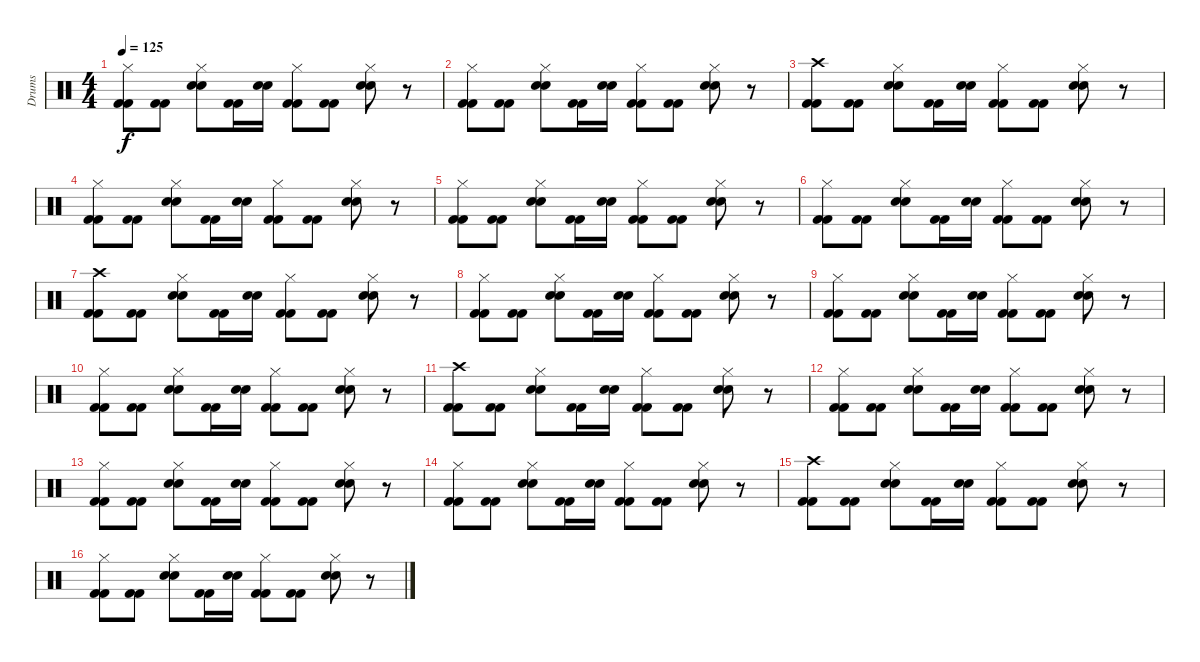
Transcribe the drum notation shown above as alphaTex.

\track ("Drums" "Drums") {instrument percussion}
\staff {score}
\articulation defaults
\ts (4 4)
\tempo 125
\clef neutral
\ks c
("Hi-Hat (closed)" "Kick (hit) 2" "Kick (hit) 2").8{dy f} ("Kick (hit) 2" "Kick (hit) 2").8 ("Hi-Hat (closed)" "Hand Clap (hit)" "Snare (hit) 2").8 ("Kick (hit) 2" "Kick (hit) 2").16 ("Hand Clap (hit)" "Snare (hit) 2").16 ("Hi-Hat (closed)" "Kick (hit) 2" "Kick (hit) 2").8 ("Kick (hit) 2" "Kick (hit) 2").8 ("Hi-Hat (closed)" "Hand Clap (hit)" "Snare (hit) 2").8 r.8 |
("Hi-Hat (closed)" "Kick (hit) 2" "Kick (hit) 2").8 ("Kick (hit) 2" "Kick (hit) 2").8 ("Hi-Hat (closed)" "Hand Clap (hit)" "Snare (hit) 2").8 ("Kick (hit) 2" "Kick (hit) 2").16 ("Hand Clap (hit)" "Snare (hit) 2").16 ("Hi-Hat (closed)" "Kick (hit) 2" "Kick (hit) 2").8 ("Kick (hit) 2" "Kick (hit) 2").8 ("Hi-Hat (closed)" "Hand Clap (hit)" "Snare (hit) 2").8 r.8 |
("Crash high (hit)" "Kick (hit) 2" "Kick (hit) 2").8{volume 11} ("Kick (hit) 2" "Kick (hit) 2").8 ("Hi-Hat (closed)" "Hand Clap (hit)" "Snare (hit) 2").8 ("Kick (hit) 2" "Kick (hit) 2").16 ("Hand Clap (hit)" "Snare (hit) 2").16 ("Hi-Hat (closed)" "Kick (hit) 2" "Kick (hit) 2").8 ("Kick (hit) 2" "Kick (hit) 2").8 ("Hi-Hat (closed)" "Hand Clap (hit)" "Snare (hit) 2").8 r.8 |
("Hi-Hat (closed)" "Kick (hit) 2" "Kick (hit) 2").8 ("Kick (hit) 2" "Kick (hit) 2").8 ("Hi-Hat (closed)" "Hand Clap (hit)" "Snare (hit) 2").8 ("Kick (hit) 2" "Kick (hit) 2").16 ("Hand Clap (hit)" "Snare (hit) 2").16 ("Hi-Hat (closed)" "Kick (hit) 2" "Kick (hit) 2").8 ("Kick (hit) 2" "Kick (hit) 2").8 ("Hi-Hat (closed)" "Hand Clap (hit)" "Snare (hit) 2").8 r.8 |
("Hi-Hat (closed)" "Kick (hit) 2" "Kick (hit) 2").8 ("Kick (hit) 2" "Kick (hit) 2").8 ("Hi-Hat (closed)" "Hand Clap (hit)" "Snare (hit) 2").8 ("Kick (hit) 2" "Kick (hit) 2").16 ("Hand Clap (hit)" "Snare (hit) 2").16 ("Hi-Hat (closed)" "Kick (hit) 2" "Kick (hit) 2").8 ("Kick (hit) 2" "Kick (hit) 2").8 ("Hi-Hat (closed)" "Hand Clap (hit)" "Snare (hit) 2").8 r.8 |
("Hi-Hat (closed)" "Kick (hit) 2" "Kick (hit) 2").8 ("Kick (hit) 2" "Kick (hit) 2").8 ("Hi-Hat (closed)" "Hand Clap (hit)" "Snare (hit) 2").8 ("Kick (hit) 2" "Kick (hit) 2").16 ("Hand Clap (hit)" "Snare (hit) 2").16 ("Hi-Hat (closed)" "Kick (hit) 2" "Kick (hit) 2").8 ("Kick (hit) 2" "Kick (hit) 2").8 ("Hi-Hat (closed)" "Hand Clap (hit)" "Snare (hit) 2").8 r.8 |
("Crash high (hit)" "Kick (hit) 2" "Kick (hit) 2").8 ("Kick (hit) 2" "Kick (hit) 2").8 ("Hi-Hat (closed)" "Hand Clap (hit)" "Snare (hit) 2").8 ("Kick (hit) 2" "Kick (hit) 2").16 ("Hand Clap (hit)" "Snare (hit) 2").16 ("Hi-Hat (closed)" "Kick (hit) 2" "Kick (hit) 2").8 ("Kick (hit) 2" "Kick (hit) 2").8 ("Hi-Hat (closed)" "Hand Clap (hit)" "Snare (hit) 2").8 r.8 |
("Hi-Hat (closed)" "Kick (hit) 2" "Kick (hit) 2").8 ("Kick (hit) 2" "Kick (hit) 2").8 ("Hi-Hat (closed)" "Hand Clap (hit)" "Snare (hit) 2").8 ("Kick (hit) 2" "Kick (hit) 2").16 ("Hand Clap (hit)" "Snare (hit) 2").16 ("Hi-Hat (closed)" "Kick (hit) 2" "Kick (hit) 2").8 ("Kick (hit) 2" "Kick (hit) 2").8 ("Hi-Hat (closed)" "Hand Clap (hit)" "Snare (hit) 2").8 r.8 |
("Hi-Hat (closed)" "Kick (hit) 2" "Kick (hit) 2").8 ("Kick (hit) 2" "Kick (hit) 2").8 ("Hi-Hat (closed)" "Hand Clap (hit)" "Snare (hit) 2").8 ("Kick (hit) 2" "Kick (hit) 2").16 ("Hand Clap (hit)" "Snare (hit) 2").16 ("Hi-Hat (closed)" "Kick (hit) 2" "Kick (hit) 2").8 ("Kick (hit) 2" "Kick (hit) 2").8 ("Hi-Hat (closed)" "Hand Clap (hit)" "Snare (hit) 2").8 r.8 |
("Hi-Hat (closed)" "Kick (hit) 2" "Kick (hit) 2").8 ("Kick (hit) 2" "Kick (hit) 2").8 ("Hi-Hat (closed)" "Hand Clap (hit)" "Snare (hit) 2").8 ("Kick (hit) 2" "Kick (hit) 2").16 ("Hand Clap (hit)" "Snare (hit) 2").16 ("Hi-Hat (closed)" "Kick (hit) 2" "Kick (hit) 2").8 ("Kick (hit) 2" "Kick (hit) 2").8 ("Hi-Hat (closed)" "Hand Clap (hit)" "Snare (hit) 2").8 r.8 |
("Crash high (hit)" "Kick (hit) 2" "Kick (hit) 2").8{volume 11} ("Kick (hit) 2" "Kick (hit) 2").8 ("Hi-Hat (closed)" "Hand Clap (hit)" "Snare (hit) 2").8 ("Kick (hit) 2" "Kick (hit) 2").16 ("Hand Clap (hit)" "Snare (hit) 2").16 ("Hi-Hat (closed)" "Kick (hit) 2" "Kick (hit) 2").8 ("Kick (hit) 2" "Kick (hit) 2").8 ("Hi-Hat (closed)" "Hand Clap (hit)" "Snare (hit) 2").8 r.8 |
("Hi-Hat (closed)" "Kick (hit) 2" "Kick (hit) 2").8 ("Kick (hit) 2" "Kick (hit) 2").8 ("Hi-Hat (closed)" "Hand Clap (hit)" "Snare (hit) 2").8 ("Kick (hit) 2" "Kick (hit) 2").16 ("Hand Clap (hit)" "Snare (hit) 2").16 ("Hi-Hat (closed)" "Kick (hit) 2" "Kick (hit) 2").8 ("Kick (hit) 2" "Kick (hit) 2").8 ("Hi-Hat (closed)" "Hand Clap (hit)" "Snare (hit) 2").8 r.8 |
("Hi-Hat (closed)" "Kick (hit) 2" "Kick (hit) 2").8 ("Kick (hit) 2" "Kick (hit) 2").8 ("Hi-Hat (closed)" "Hand Clap (hit)" "Snare (hit) 2").8 ("Kick (hit) 2" "Kick (hit) 2").16 ("Hand Clap (hit)" "Snare (hit) 2").16 ("Hi-Hat (closed)" "Kick (hit) 2" "Kick (hit) 2").8 ("Kick (hit) 2" "Kick (hit) 2").8 ("Hi-Hat (closed)" "Hand Clap (hit)" "Snare (hit) 2").8 r.8 |
("Hi-Hat (closed)" "Kick (hit) 2" "Kick (hit) 2").8 ("Kick (hit) 2" "Kick (hit) 2").8 ("Hi-Hat (closed)" "Hand Clap (hit)" "Snare (hit) 2").8 ("Kick (hit) 2" "Kick (hit) 2").16 ("Hand Clap (hit)" "Snare (hit) 2").16 ("Hi-Hat (closed)" "Kick (hit) 2" "Kick (hit) 2").8 ("Kick (hit) 2" "Kick (hit) 2").8 ("Hi-Hat (closed)" "Hand Clap (hit)" "Snare (hit) 2").8 r.8 |
("Crash high (hit)" "Kick (hit) 2" "Kick (hit) 2").8 ("Kick (hit) 2" "Kick (hit) 2").8 ("Hi-Hat (closed)" "Hand Clap (hit)" "Snare (hit) 2").8 ("Kick (hit) 2" "Kick (hit) 2").16 ("Hand Clap (hit)" "Snare (hit) 2").16 ("Hi-Hat (closed)" "Kick (hit) 2" "Kick (hit) 2").8 ("Kick (hit) 2" "Kick (hit) 2").8 ("Hi-Hat (closed)" "Hand Clap (hit)" "Snare (hit) 2").8 r.8 |
("Hi-Hat (closed)" "Kick (hit) 2" "Kick (hit) 2").8 ("Kick (hit) 2" "Kick (hit) 2").8 ("Hi-Hat (closed)" "Hand Clap (hit)" "Snare (hit) 2").8 ("Kick (hit) 2" "Kick (hit) 2").16 ("Hand Clap (hit)" "Snare (hit) 2").16 ("Hi-Hat (closed)" "Kick (hit) 2" "Kick (hit) 2").8 ("Kick (hit) 2" "Kick (hit) 2").8 ("Hi-Hat (closed)" "Hand Clap (hit)" "Snare (hit) 2").8 r.8
